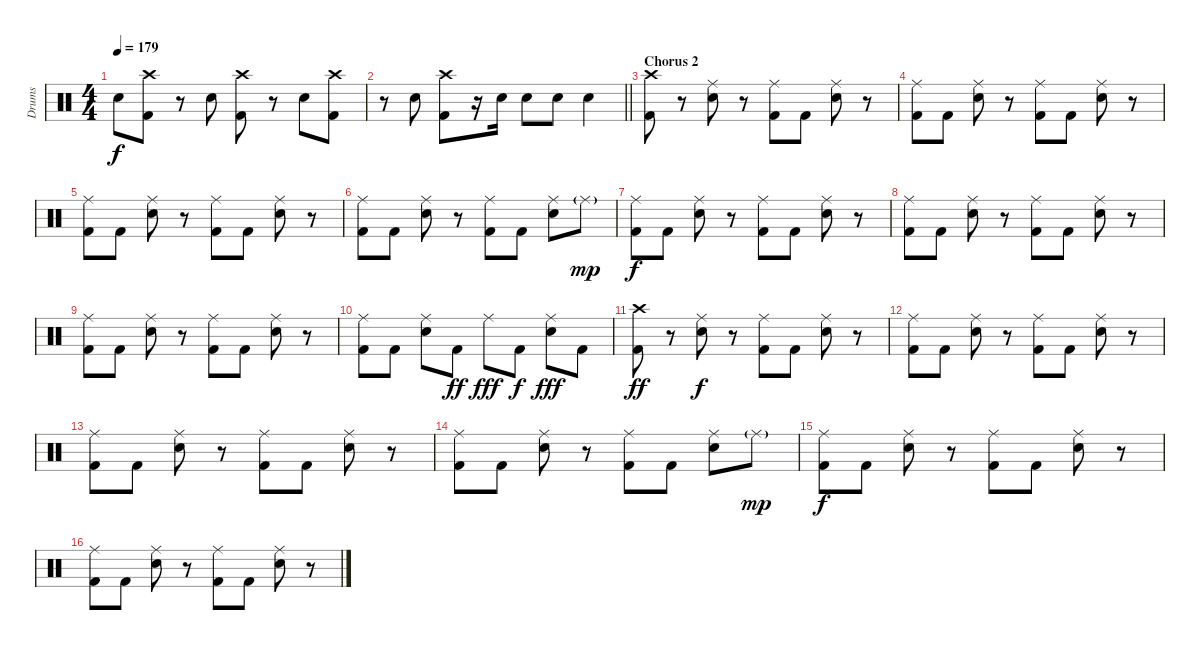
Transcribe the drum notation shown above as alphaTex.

\track ("Drums" "Drums") {instrument percussion}
\staff {score}
\articulation defaults
\ts (4 4)
\tempo 179
\clef neutral
\ks c "Snare (hit) 2".8{dy f}
("Crash high (hit)" "Kick (hit) 2").8 r.8 "Snare (hit) 2".8 ("Crash high (hit)" "Kick (hit) 2").8 r.8 "Snare (hit) 2".8 ("Crash high (hit)" "Kick (hit) 2").8 |
\barLineRight lightlight
r.8 "Snare (hit) 2".8 ("Crash high (hit)" "Kick (hit) 2").8 r.16 "Snare (hit) 2".16 "Snare (hit) 2".8 "Snare (hit) 2".8 "Snare (hit) 2".4 |
\section ("" "Chorus 2")
("Crash high (hit)" "Kick (hit) 2").8 r.8 ("Ride (middle)" "Snare (hit) 2").8 r.8 ("Ride (middle)" "Kick (hit) 2").8 "Kick (hit) 2".8 ("Ride (middle)" "Snare (hit) 2").8 r.8 |
("Ride (middle)" "Kick (hit) 2").8 "Kick (hit) 2".8 ("Ride (middle)" "Snare (hit) 2").8 r.8 ("Ride (middle)" "Kick (hit) 2").8 "Kick (hit) 2".8 ("Ride (middle)" "Snare (hit) 2").8 r.8 |
("Ride (middle)" "Kick (hit) 2").8 "Kick (hit) 2".8 ("Ride (middle)" "Snare (hit) 2").8 r.8 ("Ride (middle)" "Kick (hit) 2").8 "Kick (hit) 2".8 ("Ride (middle)" "Snare (hit) 2").8 r.8 |
("Ride (middle)" "Kick (hit) 2").8 "Kick (hit) 2".8 ("Ride (middle)" "Snare (hit) 2").8 r.8 ("Ride (middle)" "Kick (hit) 2").8 "Kick (hit) 2".8 ("Ride (middle)" "Snare (hit) 2").8 "Ride (middle)"{g}.8{dy mp} |
("Ride (middle)" "Kick (hit) 2").8{dy f} "Kick (hit) 2".8 ("Ride (middle)" "Snare (hit) 2").8 r.8 ("Ride (middle)" "Kick (hit) 2").8 "Kick (hit) 2".8 ("Ride (middle)" "Snare (hit) 2").8 r.8 |
("Ride (middle)" "Kick (hit) 2").8 "Kick (hit) 2".8 ("Ride (middle)" "Snare (hit) 2").8 r.8 ("Ride (middle)" "Kick (hit) 2").8 "Kick (hit) 2".8 ("Ride (middle)" "Snare (hit) 2").8 r.8 |
("Ride (middle)" "Kick (hit) 2").8 "Kick (hit) 2".8 ("Ride (middle)" "Snare (hit) 2").8 r.8 ("Ride (middle)" "Kick (hit) 2").8 "Kick (hit) 2".8 ("Ride (middle)" "Snare (hit) 2").8 r.8 |
("Ride (middle)" "Kick (hit) 2").8 "Kick (hit) 2".8 ("Ride (middle)" "Snare (hit) 2").8 "Kick (hit) 2".8{dy ff} "Ride (middle)".8{dy fff} "Kick (hit) 2".8{dy f} ("Ride (middle)" "Snare (hit) 2").8{dy fff} "Kick (hit) 2".8 |
("Crash high (hit)" "Kick (hit) 2").8{dy ff} r.8 ("Ride (middle)" "Snare (hit) 2").8{dy f} r.8 ("Ride (middle)" "Kick (hit) 2").8 "Kick (hit) 2".8 ("Ride (middle)" "Snare (hit) 2").8 r.8 |
("Ride (middle)" "Kick (hit) 2").8 "Kick (hit) 2".8 ("Ride (middle)" "Snare (hit) 2").8 r.8 ("Ride (middle)" "Kick (hit) 2").8 "Kick (hit) 2".8 ("Ride (middle)" "Snare (hit) 2").8 r.8 |
("Ride (middle)" "Kick (hit) 2").8 "Kick (hit) 2".8 ("Ride (middle)" "Snare (hit) 2").8 r.8 ("Ride (middle)" "Kick (hit) 2").8 "Kick (hit) 2".8 ("Ride (middle)" "Snare (hit) 2").8 r.8 |
("Ride (middle)" "Kick (hit) 2").8 "Kick (hit) 2".8 ("Ride (middle)" "Snare (hit) 2").8 r.8 ("Ride (middle)" "Kick (hit) 2").8 "Kick (hit) 2".8 ("Ride (middle)" "Snare (hit) 2").8 "Ride (middle)"{g}.8{dy mp} |
("Ride (middle)" "Kick (hit) 2").8{dy f} "Kick (hit) 2".8 ("Ride (middle)" "Snare (hit) 2").8 r.8 ("Ride (middle)" "Kick (hit) 2").8 "Kick (hit) 2".8 ("Ride (middle)" "Snare (hit) 2").8 r.8 |
("Ride (middle)" "Kick (hit) 2").8 "Kick (hit) 2".8 ("Ride (middle)" "Snare (hit) 2").8 r.8 ("Ride (middle)" "Kick (hit) 2").8 "Kick (hit) 2".8 ("Ride (middle)" "Snare (hit) 2").8 r.8
